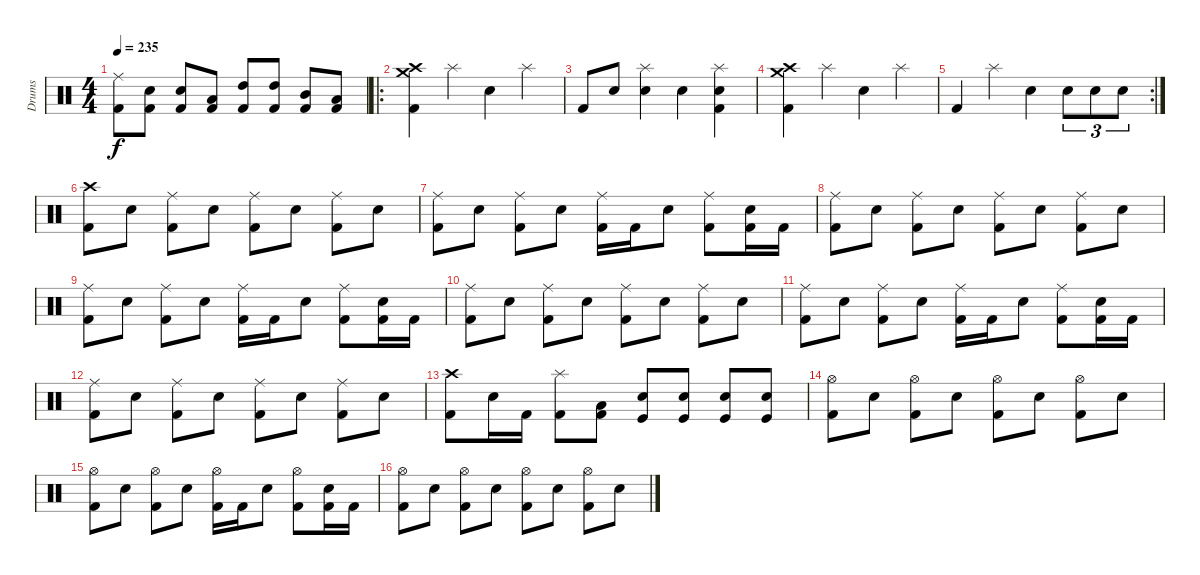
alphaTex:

\track ("Drums" "Drums") {instrument percussion}
\staff {score}
\articulation defaults
\ts (4 4)
\tempo 235
\clef neutral
\ks c
("Ride (middle)" "Kick (hit) 2").8{dy f} ("Snare (hit) 2" "Kick (hit) 2").8 ("Snare (hit) 2" "Kick (hit) 2").8 ("Low Tom (hit)" "Kick (hit) 2").8 ("High Tom (hit)" "Kick (hit) 2").8 ("High Tom (hit)" "Kick (hit) 2").8 ("Mid Tom (hit)" "Kick (hit) 2").8 ("Low Tom (hit)" "Kick (hit) 2").8 |
\ro
("Crash medium (hit)" "Crash high (hit)" "Kick (hit) 2").4 "Splash (hit)".4 "Snare (hit) 2".4 "Splash (hit)".4 |
"Kick (hit) 2".8 "Snare (hit) 2".8 ("Splash (hit)" "Snare (hit) 2").4 "Snare (hit) 2".4 ("Splash (hit)" "Snare (hit) 2" "Kick (hit) 2").4 |
("Crash medium (hit)" "Crash high (hit)" "Kick (hit) 2").4 "Splash (hit)".4 "Snare (hit) 2".4 "Splash (hit)".4 |
\rc 2 "Kick (hit) 2".4 "Splash (hit)".4 "Snare (hit) 2".4 "Snare (hit) 2".8{tu (3 2)} "Snare (hit) 2".8{tu (3 2)} "Snare (hit) 2".8{tu (3 2)}
|
("Crash high (hit)" "Kick (hit) 2").8 "Snare (hit) 2".8 ("Ride (middle)" "Kick (hit) 2").8 "Snare (hit) 2".8 ("Ride (middle)" "Kick (hit) 2").8 "Snare (hit) 2".8 ("Ride (middle)" "Kick (hit) 2").8 "Snare (hit) 2".8 |
("Ride (middle)" "Kick (hit) 2").8 "Snare (hit) 2".8 ("Ride (middle)" "Kick (hit) 2").8 "Snare (hit) 2".8 ("Ride (middle)" "Kick (hit) 2").16 "Kick (hit) 2".16 "Snare (hit) 2".8 ("Ride (middle)" "Kick (hit) 2").8 ("Snare (hit) 2" "Kick (hit) 2").16 "Kick (hit) 2".16 |
("Ride (middle)" "Kick (hit) 2").8 "Snare (hit) 2".8 ("Ride (middle)" "Kick (hit) 2").8 "Snare (hit) 2".8 ("Ride (middle)" "Kick (hit) 2").8 "Snare (hit) 2".8 ("Ride (middle)" "Kick (hit) 2").8 "Snare (hit) 2".8 |
("Ride (middle)" "Kick (hit) 2").8 "Snare (hit) 2".8 ("Ride (middle)" "Kick (hit) 2").8 "Snare (hit) 2".8 ("Ride (middle)" "Kick (hit) 2").16 "Kick (hit) 2".16 "Snare (hit) 2".8 ("Ride (middle)" "Kick (hit) 2").8 ("Snare (hit) 2" "Kick (hit) 2").16 "Kick (hit) 2".16 |
("Ride (middle)" "Kick (hit) 2").8 "Snare (hit) 2".8 ("Ride (middle)" "Kick (hit) 2").8 "Snare (hit) 2".8 ("Ride (middle)" "Kick (hit) 2").8 "Snare (hit) 2".8 ("Ride (middle)" "Kick (hit) 2").8 "Snare (hit) 2".8 |
("Ride (middle)" "Kick (hit) 2").8 "Snare (hit) 2".8 ("Ride (middle)" "Kick (hit) 2").8 "Snare (hit) 2".8 ("Ride (middle)" "Kick (hit) 2").16 "Kick (hit) 2".16 "Snare (hit) 2".8 ("Ride (middle)" "Kick (hit) 2").8 ("Snare (hit) 2" "Kick (hit) 2").16 "Kick (hit) 2".16 |
("Ride (middle)" "Kick (hit) 2").8 "Snare (hit) 2".8 ("Ride (middle)" "Kick (hit) 2").8 "Snare (hit) 2".8 ("Ride (middle)" "Kick (hit) 2").8 "Snare (hit) 2".8 ("Ride (middle)" "Kick (hit) 2").8 "Snare (hit) 2".8 |
("Crash high (hit)" "Kick (hit) 2").8 "Snare (hit) 2".16 "Kick (hit) 2".16 ("Splash (hit)" "Kick (hit) 2").8 ("Low Tom (hit)" "Kick (hit) 2").8 ("Snare (hit) 2" "Kick (hit)").8 ("Snare (hit) 2" "Kick (hit)").8 ("Snare (hit) 2" "Kick (hit)").8 ("Snare (hit) 2" "Kick (hit)").8 |
("Hi-Hat (open)" "Kick (hit) 2").8 "Snare (hit) 2".8 ("Hi-Hat (open)" "Kick (hit) 2").8 "Snare (hit) 2".8 ("Hi-Hat (open)" "Kick (hit) 2").8 "Snare (hit) 2".8 ("Hi-Hat (open)" "Kick (hit) 2").8 "Snare (hit) 2".8 |
("Hi-Hat (open)" "Kick (hit) 2").8 "Snare (hit) 2".8 ("Hi-Hat (open)" "Kick (hit) 2").8 "Snare (hit) 2".8 ("Hi-Hat (open)" "Kick (hit) 2").16 "Kick (hit) 2".16 "Snare (hit) 2".8 ("Hi-Hat (open)" "Kick (hit) 2").8 ("Snare (hit) 2" "Kick (hit) 2").16 "Kick (hit) 2".16 |
("Hi-Hat (open)" "Kick (hit) 2").8 "Snare (hit) 2".8 ("Hi-Hat (open)" "Kick (hit) 2").8 "Snare (hit) 2".8 ("Hi-Hat (open)" "Kick (hit) 2").8 "Snare (hit) 2".8 ("Hi-Hat (open)" "Kick (hit) 2").8 "Snare (hit) 2".8
